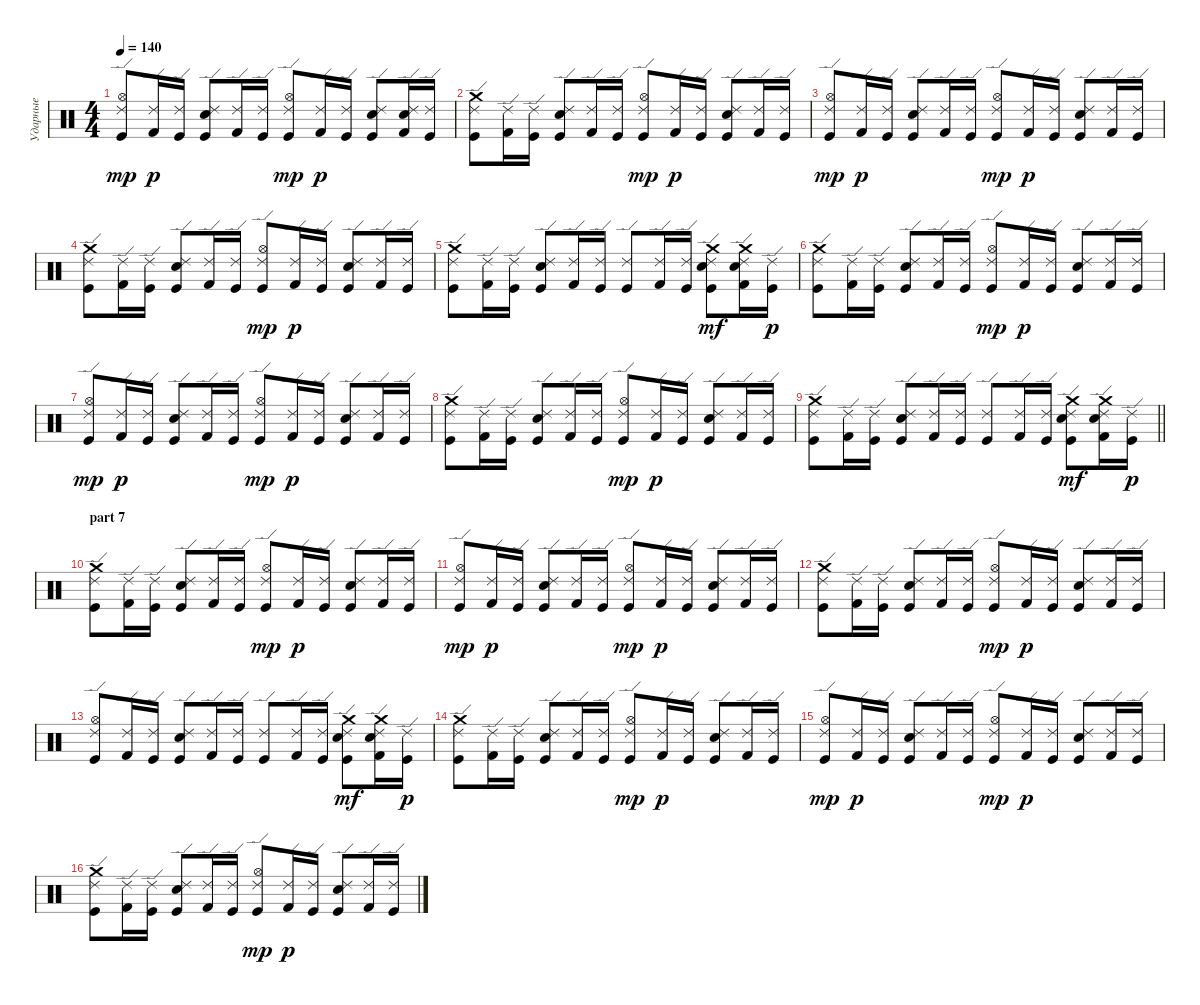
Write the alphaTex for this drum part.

\track ("Ударные" "Ударные") {instrument percussion}
\staff {score}
\articulation defaults
\ts (4 4)
\tempo 140
\clef neutral
\ks c
("Ride (edge) 2" "Hi-Hat (open)" "Kick (hit)").8{dy mp} ("Ride (edge) 2" "Kick (hit) 2").16{dy p} ("Ride (edge) 2" "Kick (hit)").16 ("Ride (edge) 2" "Electric Snare (hit)" "Kick (hit)").8 ("Ride (edge) 2" "Kick (hit) 2").16 ("Ride (edge) 2" "Kick (hit)").16 ("Ride (edge) 2" "Hi-Hat (open)" "Kick (hit)").8{dy mp} ("Ride (edge) 2" "Kick (hit) 2").16{dy p} ("Ride (edge) 2" "Kick (hit)").16 ("Ride (edge) 2" "Electric Snare (hit)" "Kick (hit)").8 ("Ride (edge) 2" "Electric Snare (hit)" "Kick (hit) 2").16 ("Ride (edge) 2" "Kick (hit)").16 |
("Ride (edge) 2" "Crash medium (hit)" "Kick (hit)").8 ("Ride (edge) 2" "Kick (hit) 2").16 ("Ride (edge) 2" "Kick (hit)").16 ("Ride (edge) 2" "Electric Snare (hit)" "Kick (hit)").8 ("Ride (edge) 2" "Kick (hit) 2").16 ("Ride (edge) 2" "Kick (hit)").16 ("Ride (edge) 2" "Hi-Hat (open)" "Kick (hit)").8{dy mp} ("Ride (edge) 2" "Kick (hit) 2").16{dy p} ("Ride (edge) 2" "Kick (hit)").16 ("Ride (edge) 2" "Electric Snare (hit)" "Kick (hit)").8 ("Ride (edge) 2" "Kick (hit) 2").16 ("Ride (edge) 2" "Kick (hit)").16 |
("Ride (edge) 2" "Hi-Hat (open)" "Kick (hit)").8{dy mp} ("Ride (edge) 2" "Kick (hit) 2").16{dy p} ("Ride (edge) 2" "Kick (hit)").16 ("Ride (edge) 2" "Electric Snare (hit)" "Kick (hit)").8 ("Ride (edge) 2" "Kick (hit) 2").16 ("Ride (edge) 2" "Kick (hit)").16 ("Ride (edge) 2" "Hi-Hat (open)" "Kick (hit)").8{dy mp} ("Ride (edge) 2" "Kick (hit) 2").16{dy p} ("Ride (edge) 2" "Kick (hit)").16 ("Ride (edge) 2" "Electric Snare (hit)" "Kick (hit)").8 ("Ride (edge) 2" "Kick (hit) 2").16 ("Ride (edge) 2" "Kick (hit)").16 |
("Ride (edge) 2" "Crash medium (hit)" "Kick (hit)").8 ("Ride (edge) 2" "Kick (hit) 2").16 ("Ride (edge) 2" "Kick (hit)").16 ("Ride (edge) 2" "Electric Snare (hit)" "Kick (hit)").8 ("Ride (edge) 2" "Kick (hit) 2").16 ("Ride (edge) 2" "Kick (hit)").16 ("Ride (edge) 2" "Hi-Hat (open)" "Kick (hit)").8{dy mp} ("Ride (edge) 2" "Kick (hit) 2").16{dy p} ("Ride (edge) 2" "Kick (hit)").16 ("Ride (edge) 2" "Electric Snare (hit)" "Kick (hit)").8 ("Ride (edge) 2" "Kick (hit) 2").16 ("Ride (edge) 2" "Kick (hit)").16 |
("Ride (edge) 2" "Crash medium (hit)" "Kick (hit)").8 ("Ride (edge) 2" "Kick (hit) 2").16 ("Ride (edge) 2" "Kick (hit)").16 ("Ride (edge) 2" "Electric Snare (hit)" "Kick (hit)").8 ("Ride (edge) 2" "Kick (hit) 2").16 ("Ride (edge) 2" "Kick (hit)").16 ("Ride (edge) 2" "Kick (hit)").8 ("Ride (edge) 2" "Kick (hit) 2").16 ("Ride (edge) 2" "Kick (hit)").16 ("Ride (edge) 2" "Crash medium (hit)" "Electric Snare (hit)" "Kick (hit)").8{dy mf} ("Ride (edge) 2" "Crash medium (hit)" "Electric Snare (hit)" "Kick (hit) 2").16 ("Ride (edge) 2" "Kick (hit)").16{dy p} |
("Ride (edge) 2" "Crash medium (hit)" "Kick (hit)").8 ("Ride (edge) 2" "Kick (hit) 2").16 ("Ride (edge) 2" "Kick (hit)").16 ("Ride (edge) 2" "Electric Snare (hit)" "Kick (hit)").8 ("Ride (edge) 2" "Kick (hit) 2").16 ("Ride (edge) 2" "Kick (hit)").16 ("Ride (edge) 2" "Hi-Hat (open)" "Kick (hit)").8{dy mp} ("Ride (edge) 2" "Kick (hit) 2").16{dy p} ("Ride (edge) 2" "Kick (hit)").16 ("Ride (edge) 2" "Electric Snare (hit)" "Kick (hit)").8 ("Ride (edge) 2" "Kick (hit) 2").16 ("Ride (edge) 2" "Kick (hit)").16 |
("Ride (edge) 2" "Hi-Hat (open)" "Kick (hit)").8{dy mp} ("Ride (edge) 2" "Kick (hit) 2").16{dy p} ("Ride (edge) 2" "Kick (hit)").16 ("Ride (edge) 2" "Electric Snare (hit)" "Kick (hit)").8 ("Ride (edge) 2" "Kick (hit) 2").16 ("Ride (edge) 2" "Kick (hit)").16 ("Ride (edge) 2" "Hi-Hat (open)" "Kick (hit)").8{dy mp} ("Ride (edge) 2" "Kick (hit) 2").16{dy p} ("Ride (edge) 2" "Kick (hit)").16 ("Ride (edge) 2" "Electric Snare (hit)" "Kick (hit)").8 ("Ride (edge) 2" "Kick (hit) 2").16 ("Ride (edge) 2" "Kick (hit)").16 |
("Ride (edge) 2" "Crash medium (hit)" "Kick (hit)").8 ("Ride (edge) 2" "Kick (hit) 2").16 ("Ride (edge) 2" "Kick (hit)").16 ("Ride (edge) 2" "Electric Snare (hit)" "Kick (hit)").8 ("Ride (edge) 2" "Kick (hit) 2").16 ("Ride (edge) 2" "Kick (hit)").16 ("Ride (edge) 2" "Hi-Hat (open)" "Kick (hit)").8{dy mp} ("Ride (edge) 2" "Kick (hit) 2").16{dy p} ("Ride (edge) 2" "Kick (hit)").16 ("Ride (edge) 2" "Electric Snare (hit)" "Kick (hit)").8 ("Ride (edge) 2" "Kick (hit) 2").16 ("Ride (edge) 2" "Kick (hit)").16 |
\barLineRight lightlight
("Ride (edge) 2" "Crash medium (hit)" "Kick (hit)").8 ("Ride (edge) 2" "Kick (hit) 2").16 ("Ride (edge) 2" "Kick (hit)").16 ("Ride (edge) 2" "Electric Snare (hit)" "Kick (hit)").8 ("Ride (edge) 2" "Kick (hit) 2").16 ("Ride (edge) 2" "Kick (hit)").16 ("Ride (edge) 2" "Kick (hit)").8 ("Ride (edge) 2" "Kick (hit) 2").16 ("Ride (edge) 2" "Kick (hit)").16 ("Ride (edge) 2" "Crash medium (hit)" "Electric Snare (hit)" "Kick (hit)").8{dy mf} ("Ride (edge) 2" "Crash medium (hit)" "Electric Snare (hit)" "Kick (hit) 2").16 ("Ride (edge) 2" "Kick (hit)").16{dy p} |
\section ("" "part 7")
("Ride (edge) 2" "Crash medium (hit)" "Kick (hit)").8 ("Ride (edge) 2" "Kick (hit) 2").16 ("Ride (edge) 2" "Kick (hit)").16 ("Ride (edge) 2" "Electric Snare (hit)" "Kick (hit)").8 ("Ride (edge) 2" "Kick (hit) 2").16 ("Ride (edge) 2" "Kick (hit)").16 ("Ride (edge) 2" "Hi-Hat (open)" "Kick (hit)").8{dy mp} ("Ride (edge) 2" "Kick (hit) 2").16{dy p} ("Ride (edge) 2" "Kick (hit)").16 ("Ride (edge) 2" "Electric Snare (hit)" "Kick (hit)").8 ("Ride (edge) 2" "Kick (hit) 2").16 ("Ride (edge) 2" "Kick (hit)").16 |
("Ride (edge) 2" "Hi-Hat (open)" "Kick (hit)").8{dy mp} ("Ride (edge) 2" "Kick (hit) 2").16{dy p} ("Ride (edge) 2" "Kick (hit)").16 ("Ride (edge) 2" "Electric Snare (hit)" "Kick (hit)").8 ("Ride (edge) 2" "Kick (hit) 2").16 ("Ride (edge) 2" "Kick (hit)").16 ("Ride (edge) 2" "Hi-Hat (open)" "Kick (hit)").8{dy mp} ("Ride (edge) 2" "Kick (hit) 2").16{dy p} ("Ride (edge) 2" "Kick (hit)").16 ("Ride (edge) 2" "Electric Snare (hit)" "Kick (hit)").8 ("Ride (edge) 2" "Kick (hit) 2").16 ("Ride (edge) 2" "Kick (hit)").16 |
("Ride (edge) 2" "Crash medium (hit)" "Kick (hit)").8 ("Ride (edge) 2" "Kick (hit) 2").16 ("Ride (edge) 2" "Kick (hit)").16 ("Ride (edge) 2" "Electric Snare (hit)" "Kick (hit)").8 ("Ride (edge) 2" "Kick (hit) 2").16 ("Ride (edge) 2" "Kick (hit)").16 ("Ride (edge) 2" "Hi-Hat (open)" "Kick (hit)").8{dy mp} ("Ride (edge) 2" "Kick (hit) 2").16{dy p} ("Ride (edge) 2" "Kick (hit)").16 ("Ride (edge) 2" "Electric Snare (hit)" "Kick (hit)").8 ("Ride (edge) 2" "Kick (hit) 2").16 ("Ride (edge) 2" "Kick (hit)").16 |
("Ride (edge) 2" "Hi-Hat (open)" "Kick (hit)").8 ("Ride (edge) 2" "Kick (hit) 2").16 ("Ride (edge) 2" "Kick (hit)").16 ("Ride (edge) 2" "Electric Snare (hit)" "Kick (hit)").8 ("Ride (edge) 2" "Kick (hit) 2").16 ("Ride (edge) 2" "Kick (hit)").16 ("Ride (edge) 2" "Kick (hit)").8 ("Ride (edge) 2" "Kick (hit) 2").16 ("Ride (edge) 2" "Kick (hit)").16 ("Ride (edge) 2" "Crash medium (hit)" "Electric Snare (hit)" "Kick (hit)").8{dy mf} ("Ride (edge) 2" "Crash medium (hit)" "Electric Snare (hit)" "Kick (hit) 2").16 ("Ride (edge) 2" "Kick (hit)").16{dy p} |
("Ride (edge) 2" "Crash medium (hit)" "Kick (hit)").8 ("Ride (edge) 2" "Kick (hit) 2").16 ("Ride (edge) 2" "Kick (hit)").16 ("Ride (edge) 2" "Electric Snare (hit)" "Kick (hit)").8 ("Ride (edge) 2" "Kick (hit) 2").16 ("Ride (edge) 2" "Kick (hit)").16 ("Ride (edge) 2" "Hi-Hat (open)" "Kick (hit)").8{dy mp} ("Ride (edge) 2" "Kick (hit) 2").16{dy p} ("Ride (edge) 2" "Kick (hit)").16 ("Ride (edge) 2" "Electric Snare (hit)" "Kick (hit)").8 ("Ride (edge) 2" "Kick (hit) 2").16 ("Ride (edge) 2" "Kick (hit)").16 |
("Ride (edge) 2" "Hi-Hat (open)" "Kick (hit)").8{dy mp} ("Ride (edge) 2" "Kick (hit) 2").16{dy p} ("Ride (edge) 2" "Kick (hit)").16 ("Ride (edge) 2" "Electric Snare (hit)" "Kick (hit)").8 ("Ride (edge) 2" "Kick (hit) 2").16 ("Ride (edge) 2" "Kick (hit)").16 ("Ride (edge) 2" "Hi-Hat (open)" "Kick (hit)").8{dy mp} ("Ride (edge) 2" "Kick (hit) 2").16{dy p} ("Ride (edge) 2" "Kick (hit)").16 ("Ride (edge) 2" "Electric Snare (hit)" "Kick (hit)").8 ("Ride (edge) 2" "Kick (hit) 2").16 ("Ride (edge) 2" "Kick (hit)").16 |
("Ride (edge) 2" "Crash medium (hit)" "Kick (hit)").8 ("Ride (edge) 2" "Kick (hit) 2").16 ("Ride (edge) 2" "Kick (hit)").16 ("Ride (edge) 2" "Electric Snare (hit)" "Kick (hit)").8 ("Ride (edge) 2" "Kick (hit) 2").16 ("Ride (edge) 2" "Kick (hit)").16 ("Ride (edge) 2" "Hi-Hat (open)" "Kick (hit)").8{dy mp} ("Ride (edge) 2" "Kick (hit) 2").16{dy p} ("Ride (edge) 2" "Kick (hit)").16 ("Ride (edge) 2" "Electric Snare (hit)" "Kick (hit)").8 ("Ride (edge) 2" "Kick (hit) 2").16 ("Ride (edge) 2" "Kick (hit)").16
